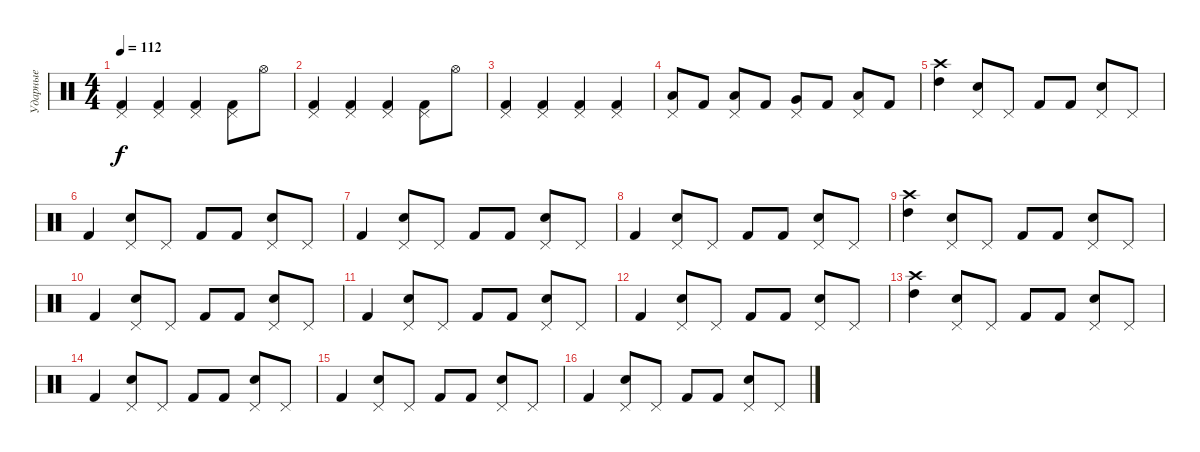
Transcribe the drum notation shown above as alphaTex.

\track ("Ударные" "Ударные") {instrument percussion}
\staff {score}
\articulation defaults
\ts (4 4)
\tempo 112
\clef neutral
\ks c
("Pedal Hi-Hat (hit)" "Kick (hit) 2").4{dy f} ("Pedal Hi-Hat (hit)" "Kick (hit) 2").4 ("Pedal Hi-Hat (hit)" "Kick (hit) 2").4 ("Pedal Hi-Hat (hit)" "Kick (hit) 2").8 "Hi-Hat (open)".8 |
("Pedal Hi-Hat (hit)" "Kick (hit) 2").4 ("Pedal Hi-Hat (hit)" "Kick (hit) 2").4 ("Pedal Hi-Hat (hit)" "Kick (hit) 2").4 ("Pedal Hi-Hat (hit)" "Kick (hit) 2").8 "Hi-Hat (open)".8 |
("Pedal Hi-Hat (hit)" "Kick (hit) 2").4 ("Pedal Hi-Hat (hit)" "Kick (hit) 2").4 ("Pedal Hi-Hat (hit)" "Kick (hit) 2").4 ("Pedal Hi-Hat (hit)" "Kick (hit) 2").4 |
("Pedal Hi-Hat (hit)" "Low Floor Tom (hit)").8{volume 4} "Kick (hit) 2".8 ("Pedal Hi-Hat (hit)" "Low Floor Tom (hit)").8{volume 8} "Kick (hit) 2".8 ("Pedal Hi-Hat (hit)" "Very Low Tom (hit)").8{volume 12} "Kick (hit) 2".8 ("Pedal Hi-Hat (hit)" "Low Tom (hit)").8{volume 16} "Kick (hit) 2".8 |
("Crash high (hit)" "High Tom (hit)").4 ("Pedal Hi-Hat (hit)" "Snare (hit) 2").8 "Pedal Hi-Hat (hit)".8 "Kick (hit) 2".8 "Kick (hit) 2".8 ("Pedal Hi-Hat (hit)" "Snare (hit) 2").8 "Pedal Hi-Hat (hit)".8 |
"Kick (hit) 2".4 ("Pedal Hi-Hat (hit)" "Snare (hit) 2").8 "Pedal Hi-Hat (hit)".8 "Kick (hit) 2".8 "Kick (hit) 2".8 ("Pedal Hi-Hat (hit)" "Snare (hit) 2").8 "Pedal Hi-Hat (hit)".8 |
"Kick (hit) 2".4 ("Pedal Hi-Hat (hit)" "Snare (hit) 2").8 "Pedal Hi-Hat (hit)".8 "Kick (hit) 2".8 "Kick (hit) 2".8 ("Pedal Hi-Hat (hit)" "Snare (hit) 2").8 "Pedal Hi-Hat (hit)".8 |
"Kick (hit) 2".4 ("Pedal Hi-Hat (hit)" "Snare (hit) 2").8 "Pedal Hi-Hat (hit)".8 "Kick (hit) 2".8 "Kick (hit) 2".8 ("Pedal Hi-Hat (hit)" "Snare (hit) 2").8 "Pedal Hi-Hat (hit)".8 |
("Crash high (hit)" "High Tom (hit)").4 ("Pedal Hi-Hat (hit)" "Snare (hit) 2").8 "Pedal Hi-Hat (hit)".8 "Kick (hit) 2".8 "Kick (hit) 2".8 ("Pedal Hi-Hat (hit)" "Snare (hit) 2").8 "Pedal Hi-Hat (hit)".8 |
"Kick (hit) 2".4 ("Pedal Hi-Hat (hit)" "Snare (hit) 2").8 "Pedal Hi-Hat (hit)".8 "Kick (hit) 2".8 "Kick (hit) 2".8 ("Pedal Hi-Hat (hit)" "Snare (hit) 2").8 "Pedal Hi-Hat (hit)".8 |
"Kick (hit) 2".4 ("Pedal Hi-Hat (hit)" "Snare (hit) 2").8 "Pedal Hi-Hat (hit)".8 "Kick (hit) 2".8 "Kick (hit) 2".8 ("Pedal Hi-Hat (hit)" "Snare (hit) 2").8 "Pedal Hi-Hat (hit)".8 |
"Kick (hit) 2".4 ("Pedal Hi-Hat (hit)" "Snare (hit) 2").8 "Pedal Hi-Hat (hit)".8 "Kick (hit) 2".8 "Kick (hit) 2".8 ("Pedal Hi-Hat (hit)" "Snare (hit) 2").8 "Pedal Hi-Hat (hit)".8 |
("Crash high (hit)" "High Tom (hit)").4 ("Pedal Hi-Hat (hit)" "Snare (hit) 2").8 "Pedal Hi-Hat (hit)".8 "Kick (hit) 2".8 "Kick (hit) 2".8 ("Pedal Hi-Hat (hit)" "Snare (hit) 2").8 "Pedal Hi-Hat (hit)".8 |
"Kick (hit) 2".4 ("Pedal Hi-Hat (hit)" "Snare (hit) 2").8 "Pedal Hi-Hat (hit)".8 "Kick (hit) 2".8 "Kick (hit) 2".8 ("Pedal Hi-Hat (hit)" "Snare (hit) 2").8 "Pedal Hi-Hat (hit)".8 |
"Kick (hit) 2".4 ("Pedal Hi-Hat (hit)" "Snare (hit) 2").8 "Pedal Hi-Hat (hit)".8 "Kick (hit) 2".8 "Kick (hit) 2".8 ("Pedal Hi-Hat (hit)" "Snare (hit) 2").8 "Pedal Hi-Hat (hit)".8 |
"Kick (hit) 2".4 ("Pedal Hi-Hat (hit)" "Snare (hit) 2").8 "Pedal Hi-Hat (hit)".8 "Kick (hit) 2".8 "Kick (hit) 2".8 ("Pedal Hi-Hat (hit)" "Snare (hit) 2").8 "Pedal Hi-Hat (hit)".8
